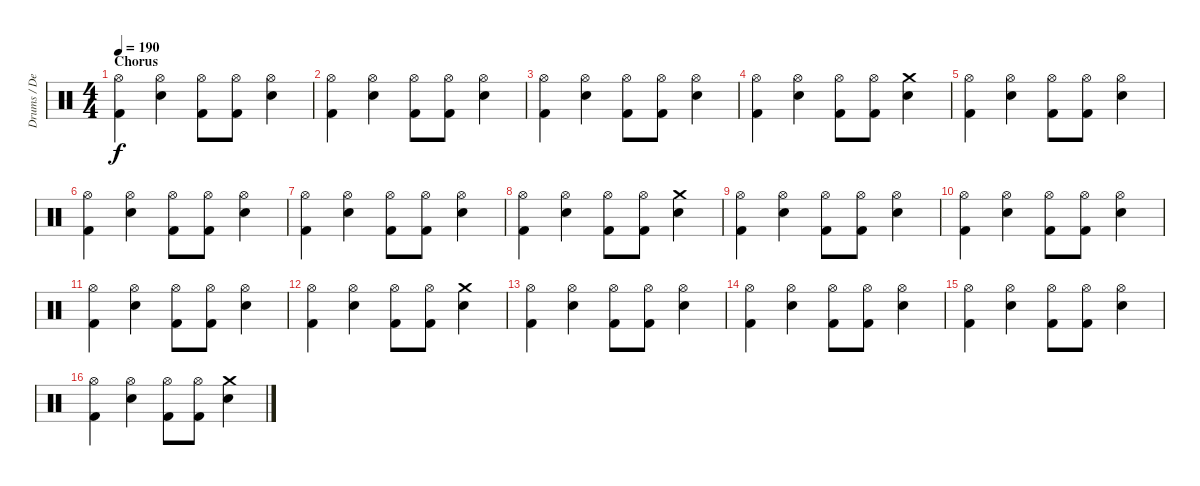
\track ("Drums / Dennis" "Drums / De") {instrument percussion}
\staff {score}
\articulation defaults
\ts (4 4)
\section ("" "Chorus")
\tempo 190
\clef neutral
\ks c
("Kick (hit) 2" "Hi-Hat (open)").4{dy f} ("Snare (hit) 2" "Hi-Hat (open)").4 ("Kick (hit) 2" "Hi-Hat (open)").8 ("Kick (hit) 2" "Hi-Hat (open)").8 ("Snare (hit) 2" "Hi-Hat (open)").4 |
("Kick (hit) 2" "Hi-Hat (open)").4 ("Snare (hit) 2" "Hi-Hat (open)").4 ("Kick (hit) 2" "Hi-Hat (open)").8 ("Kick (hit) 2" "Hi-Hat (open)").8 ("Snare (hit) 2" "Hi-Hat (open)").4 |
("Kick (hit) 2" "Hi-Hat (open)").4 ("Snare (hit) 2" "Hi-Hat (open)").4 ("Kick (hit) 2" "Hi-Hat (open)").8 ("Kick (hit) 2" "Hi-Hat (open)").8 ("Snare (hit) 2" "Hi-Hat (open)").4 |
("Kick (hit) 2" "Hi-Hat (open)").4 ("Snare (hit) 2" "Hi-Hat (open)").4 ("Kick (hit) 2" "Hi-Hat (open)").8 ("Kick (hit) 2" "Hi-Hat (open)").8 ("Crash medium (hit)" "Snare (hit) 2").4 |
("Kick (hit) 2" "Hi-Hat (open)").4 ("Snare (hit) 2" "Hi-Hat (open)").4 ("Kick (hit) 2" "Hi-Hat (open)").8 ("Kick (hit) 2" "Hi-Hat (open)").8 ("Snare (hit) 2" "Hi-Hat (open)").4 |
("Kick (hit) 2" "Hi-Hat (open)").4 ("Snare (hit) 2" "Hi-Hat (open)").4 ("Kick (hit) 2" "Hi-Hat (open)").8 ("Kick (hit) 2" "Hi-Hat (open)").8 ("Snare (hit) 2" "Hi-Hat (open)").4 |
("Kick (hit) 2" "Hi-Hat (open)").4 ("Snare (hit) 2" "Hi-Hat (open)").4 ("Kick (hit) 2" "Hi-Hat (open)").8 ("Kick (hit) 2" "Hi-Hat (open)").8 ("Snare (hit) 2" "Hi-Hat (open)").4 |
("Kick (hit) 2" "Hi-Hat (open)").4 ("Snare (hit) 2" "Hi-Hat (open)").4 ("Kick (hit) 2" "Hi-Hat (open)").8 ("Kick (hit) 2" "Hi-Hat (open)").8 ("Crash medium (hit)" "Snare (hit) 2").4 |
("Kick (hit) 2" "Hi-Hat (open)").4 ("Snare (hit) 2" "Hi-Hat (open)").4 ("Kick (hit) 2" "Hi-Hat (open)").8 ("Kick (hit) 2" "Hi-Hat (open)").8 ("Snare (hit) 2" "Hi-Hat (open)").4 |
("Kick (hit) 2" "Hi-Hat (open)").4 ("Snare (hit) 2" "Hi-Hat (open)").4 ("Kick (hit) 2" "Hi-Hat (open)").8 ("Kick (hit) 2" "Hi-Hat (open)").8 ("Snare (hit) 2" "Hi-Hat (open)").4 |
("Kick (hit) 2" "Hi-Hat (open)").4 ("Snare (hit) 2" "Hi-Hat (open)").4 ("Kick (hit) 2" "Hi-Hat (open)").8 ("Kick (hit) 2" "Hi-Hat (open)").8 ("Snare (hit) 2" "Hi-Hat (open)").4 |
("Kick (hit) 2" "Hi-Hat (open)").4 ("Snare (hit) 2" "Hi-Hat (open)").4 ("Kick (hit) 2" "Hi-Hat (open)").8 ("Kick (hit) 2" "Hi-Hat (open)").8 ("Crash medium (hit)" "Snare (hit) 2").4 |
("Kick (hit) 2" "Hi-Hat (open)").4 ("Snare (hit) 2" "Hi-Hat (open)").4 ("Kick (hit) 2" "Hi-Hat (open)").8 ("Kick (hit) 2" "Hi-Hat (open)").8 ("Snare (hit) 2" "Hi-Hat (open)").4 |
("Kick (hit) 2" "Hi-Hat (open)").4 ("Snare (hit) 2" "Hi-Hat (open)").4 ("Kick (hit) 2" "Hi-Hat (open)").8 ("Kick (hit) 2" "Hi-Hat (open)").8 ("Snare (hit) 2" "Hi-Hat (open)").4 |
("Kick (hit) 2" "Hi-Hat (open)").4 ("Snare (hit) 2" "Hi-Hat (open)").4 ("Kick (hit) 2" "Hi-Hat (open)").8 ("Kick (hit) 2" "Hi-Hat (open)").8 ("Snare (hit) 2" "Hi-Hat (open)").4 |
("Kick (hit) 2" "Hi-Hat (open)").4 ("Snare (hit) 2" "Hi-Hat (open)").4 ("Kick (hit) 2" "Hi-Hat (open)").8 ("Kick (hit) 2" "Hi-Hat (open)").8 ("Crash medium (hit)" "Snare (hit) 2").4
